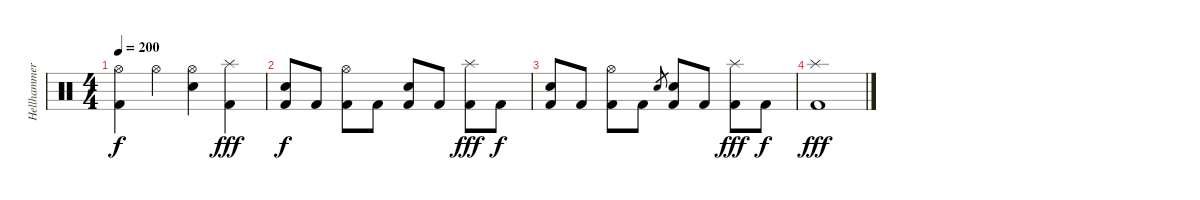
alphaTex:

\track ("Hellhammer" "Hellhammer") {instrument percussion}
\staff {score}
\articulation defaults
\ts (4 4)
\tempo 200
\clef neutral
\ks c
("Kick (hit) 2" "Hi-Hat (open)").4{dy f} "Hi-Hat (open)".4 ("Electric Snare (hit)" "Hi-Hat (open)").4 ("Kick (hit) 2" "Splash (hit)").4{dy fff} |
("Kick (hit) 2" "Electric Snare (hit)").8{dy f} "Kick (hit) 2".8 ("Kick (hit) 2" "Hi-Hat (open)").8 "Kick (hit) 2".8 ("Kick (hit) 2" "Electric Snare (hit)").8 "Kick (hit) 2".8 ("Kick (hit) 2" "Splash (hit)").8{dy fff} "Kick (hit) 2".8{dy f} |
("Kick (hit) 2" "Electric Snare (hit)").8 "Kick (hit) 2".8 ("Kick (hit) 2" "Hi-Hat (open)").8 "Kick (hit) 2".8 "Electric Snare (hit)".8{gr} ("Kick (hit) 2" "Electric Snare (hit)").8 "Kick (hit) 2".8 ("Kick (hit) 2" "Splash (hit)").8{dy fff} "Kick (hit) 2".8{dy f} |
("Kick (hit) 2" "Splash (hit)").1{dy fff}
